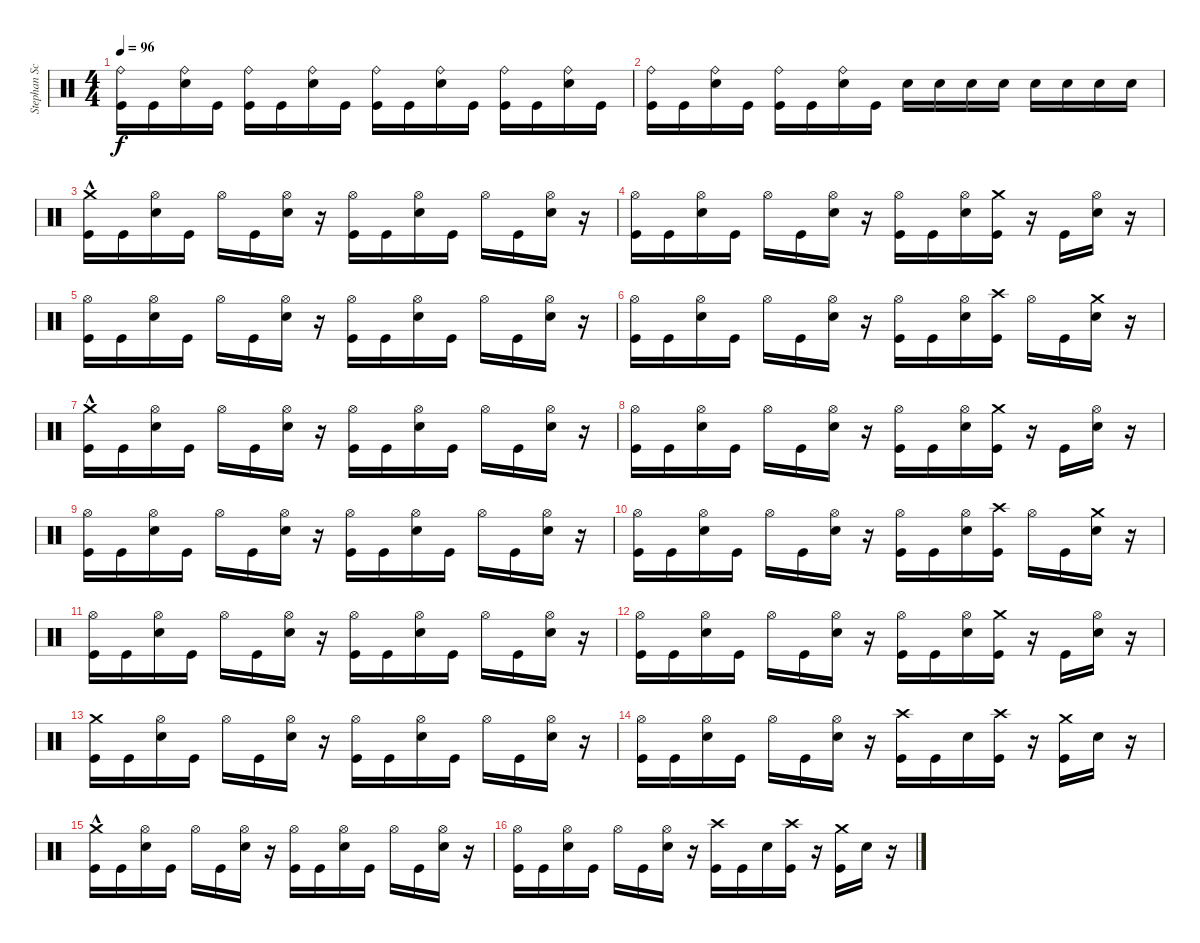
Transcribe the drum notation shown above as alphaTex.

\track ("Stephan Schwarzmann" "Stephan Sc") {instrument percussion}
\staff {score}
\articulation defaults
\ts (4 4)
\tempo 96
\clef neutral
\ks c
("Kick (hit)" "Ride (bell)").16{dy f} "Kick (hit)".16 ("Snare (hit) 2" "Ride (bell)").16 "Kick (hit)".16 ("Kick (hit)" "Ride (bell)").16 "Kick (hit)".16 ("Snare (hit) 2" "Ride (bell)").16 "Kick (hit)".16 ("Kick (hit)" "Ride (bell)").16 "Kick (hit)".16 ("Snare (hit) 2" "Ride (bell)").16 "Kick (hit)".16 ("Kick (hit)" "Ride (bell)").16 "Kick (hit)".16 ("Snare (hit) 2" "Ride (bell)").16 "Kick (hit)".16 |
("Kick (hit)" "Ride (bell)").16 "Kick (hit)".16 ("Snare (hit) 2" "Ride (bell)").16 "Kick (hit)".16 ("Kick (hit)" "Ride (bell)").16 "Kick (hit)".16 ("Snare (hit) 2" "Ride (bell)").16 "Kick (hit)".16 "Snare (hit) 2".16 "Snare (hit) 2".16 "Snare (hit) 2".16 "Snare (hit) 2".16 "Snare (hit) 2".16 "Snare (hit) 2".16 "Snare (hit) 2".16 "Snare (hit) 2".16 |
("Kick (hit)" "Crash medium (hit)"{hac}).16 "Kick (hit)".16 ("Snare (hit) 2" "Hi-Hat (open)").16 "Kick (hit)".16 "Hi-Hat (open)".16 "Kick (hit)".16 ("Hi-Hat (open)" "Snare (hit) 2").16 r.16 ("Hi-Hat (open)" "Kick (hit)").16 "Kick (hit)".16 ("Snare (hit) 2" "Hi-Hat (open)").16 "Kick (hit)".16 "Hi-Hat (open)".16 "Kick (hit)".16 ("Hi-Hat (open)" "Snare (hit) 2").16 r.16 |
("Kick (hit)" "Hi-Hat (open)").16 "Kick (hit)".16 ("Snare (hit) 2" "Hi-Hat (open)").16 "Kick (hit)".16 "Hi-Hat (open)".16 "Kick (hit)".16 ("Hi-Hat (open)" "Snare (hit) 2").16 r.16 ("Hi-Hat (open)" "Kick (hit)").16 "Kick (hit)".16 ("Snare (hit) 2" "Hi-Hat (open)").16 ("Kick (hit)" "Crash medium (hit)").16 r.16 "Kick (hit)".16 ("Hi-Hat (open)" "Snare (hit) 2").16 r.16 |
("Kick (hit)" "Hi-Hat (open)").16 "Kick (hit)".16 ("Snare (hit) 2" "Hi-Hat (open)").16 "Kick (hit)".16 "Hi-Hat (open)".16 "Kick (hit)".16 ("Hi-Hat (open)" "Snare (hit) 2").16 r.16 ("Hi-Hat (open)" "Kick (hit)").16 "Kick (hit)".16 ("Snare (hit) 2" "Hi-Hat (open)").16 "Kick (hit)".16 "Hi-Hat (open)".16 "Kick (hit)".16 ("Hi-Hat (open)" "Snare (hit) 2").16 r.16 |
("Kick (hit)" "Hi-Hat (open)").16 "Kick (hit)".16 ("Snare (hit) 2" "Hi-Hat (open)").16 "Kick (hit)".16 "Hi-Hat (open)".16 "Kick (hit)".16 ("Hi-Hat (open)" "Snare (hit) 2").16 r.16 ("Hi-Hat (open)" "Kick (hit)").16 "Kick (hit)".16 ("Snare (hit) 2" "Hi-Hat (open)").16 ("Kick (hit)" "Crash high (hit)").16 "Hi-Hat (open)".16 "Kick (hit)".16 ("Snare (hit) 2" "Crash medium (hit)").16 r.16 |
("Kick (hit)" "Crash medium (hit)"{hac}).16 "Kick (hit)".16 ("Snare (hit) 2" "Hi-Hat (open)").16 "Kick (hit)".16 "Hi-Hat (open)".16 "Kick (hit)".16 ("Hi-Hat (open)" "Snare (hit) 2").16 r.16 ("Hi-Hat (open)" "Kick (hit)").16 "Kick (hit)".16 ("Snare (hit) 2" "Hi-Hat (open)").16 "Kick (hit)".16 "Hi-Hat (open)".16 "Kick (hit)".16 ("Hi-Hat (open)" "Snare (hit) 2").16 r.16 |
("Kick (hit)" "Hi-Hat (open)").16 "Kick (hit)".16 ("Snare (hit) 2" "Hi-Hat (open)").16 "Kick (hit)".16 "Hi-Hat (open)".16 "Kick (hit)".16 ("Hi-Hat (open)" "Snare (hit) 2").16 r.16 ("Hi-Hat (open)" "Kick (hit)").16 "Kick (hit)".16 ("Snare (hit) 2" "Hi-Hat (open)").16 ("Kick (hit)" "Crash medium (hit)").16 r.16 "Kick (hit)".16 ("Hi-Hat (open)" "Snare (hit) 2").16 r.16 |
("Kick (hit)" "Hi-Hat (open)").16 "Kick (hit)".16 ("Snare (hit) 2" "Hi-Hat (open)").16 "Kick (hit)".16 "Hi-Hat (open)".16 "Kick (hit)".16 ("Hi-Hat (open)" "Snare (hit) 2").16 r.16 ("Hi-Hat (open)" "Kick (hit)").16 "Kick (hit)".16 ("Snare (hit) 2" "Hi-Hat (open)").16 "Kick (hit)".16 "Hi-Hat (open)".16 "Kick (hit)".16 ("Hi-Hat (open)" "Snare (hit) 2").16 r.16 |
("Kick (hit)" "Hi-Hat (open)").16 "Kick (hit)".16 ("Snare (hit) 2" "Hi-Hat (open)").16 "Kick (hit)".16 "Hi-Hat (open)".16 "Kick (hit)".16 ("Hi-Hat (open)" "Snare (hit) 2").16 r.16 ("Hi-Hat (open)" "Kick (hit)").16 "Kick (hit)".16 ("Snare (hit) 2" "Hi-Hat (open)").16 ("Kick (hit)" "Crash high (hit)").16 "Hi-Hat (open)".16 "Kick (hit)".16 ("Snare (hit) 2" "Crash medium (hit)").16 r.16 |
("Kick (hit)" "Hi-Hat (open)").16 "Kick (hit)".16 ("Snare (hit) 2" "Hi-Hat (open)").16 "Kick (hit)".16 "Hi-Hat (open)".16 "Kick (hit)".16 ("Hi-Hat (open)" "Snare (hit) 2").16 r.16 ("Hi-Hat (open)" "Kick (hit)").16 "Kick (hit)".16 ("Snare (hit) 2" "Hi-Hat (open)").16 "Kick (hit)".16 "Hi-Hat (open)".16 "Kick (hit)".16 ("Hi-Hat (open)" "Snare (hit) 2").16 r.16 |
("Kick (hit)" "Hi-Hat (open)").16 "Kick (hit)".16 ("Snare (hit) 2" "Hi-Hat (open)").16 "Kick (hit)".16 "Hi-Hat (open)".16 "Kick (hit)".16 ("Hi-Hat (open)" "Snare (hit) 2").16 r.16 ("Hi-Hat (open)" "Kick (hit)").16 "Kick (hit)".16 ("Snare (hit) 2" "Hi-Hat (open)").16 ("Kick (hit)" "Crash medium (hit)").16 r.16 "Kick (hit)".16 ("Hi-Hat (open)" "Snare (hit) 2").16 r.16 |
("Kick (hit)" "Crash medium (hit)").16 "Kick (hit)".16 ("Snare (hit) 2" "Hi-Hat (open)").16 "Kick (hit)".16 "Hi-Hat (open)".16 "Kick (hit)".16 ("Hi-Hat (open)" "Snare (hit) 2").16 r.16 ("Hi-Hat (open)" "Kick (hit)").16 "Kick (hit)".16 ("Snare (hit) 2" "Hi-Hat (open)").16 "Kick (hit)".16 "Hi-Hat (open)".16 "Kick (hit)".16 ("Hi-Hat (open)" "Snare (hit) 2").16 r.16 |
("Kick (hit)" "Hi-Hat (open)").16 "Kick (hit)".16 ("Snare (hit) 2" "Hi-Hat (open)").16 "Kick (hit)".16 "Hi-Hat (open)".16 "Kick (hit)".16 ("Hi-Hat (open)" "Snare (hit) 2").16 r.16 ("Kick (hit)" "Crash high (hit)").16 "Kick (hit)".16 "Snare (hit) 2".16 ("Kick (hit)" "Crash high (hit)").16 r.16 ("Kick (hit)" "Crash medium (hit)").16 "Snare (hit) 2".16 r.16 |
("Kick (hit)" "Crash medium (hit)"{hac}).16 "Kick (hit)".16 ("Snare (hit) 2" "Hi-Hat (open)").16 "Kick (hit)".16 "Hi-Hat (open)".16 "Kick (hit)".16 ("Hi-Hat (open)" "Snare (hit) 2").16 r.16 ("Hi-Hat (open)" "Kick (hit)").16 "Kick (hit)".16 ("Snare (hit) 2" "Hi-Hat (open)").16 "Kick (hit)".16 "Hi-Hat (open)".16 "Kick (hit)".16 ("Hi-Hat (open)" "Snare (hit) 2").16 r.16 |
("Kick (hit)" "Hi-Hat (open)").16 "Kick (hit)".16 ("Snare (hit) 2" "Hi-Hat (open)").16 "Kick (hit)".16 "Hi-Hat (open)".16 "Kick (hit)".16 ("Hi-Hat (open)" "Snare (hit) 2").16 r.16 ("Kick (hit)" "Crash high (hit)").16 "Kick (hit)".16 "Snare (hit) 2".16 ("Kick (hit)" "Crash high (hit)").16 r.16 ("Kick (hit)" "Crash medium (hit)").16 "Snare (hit) 2".16 r.16
